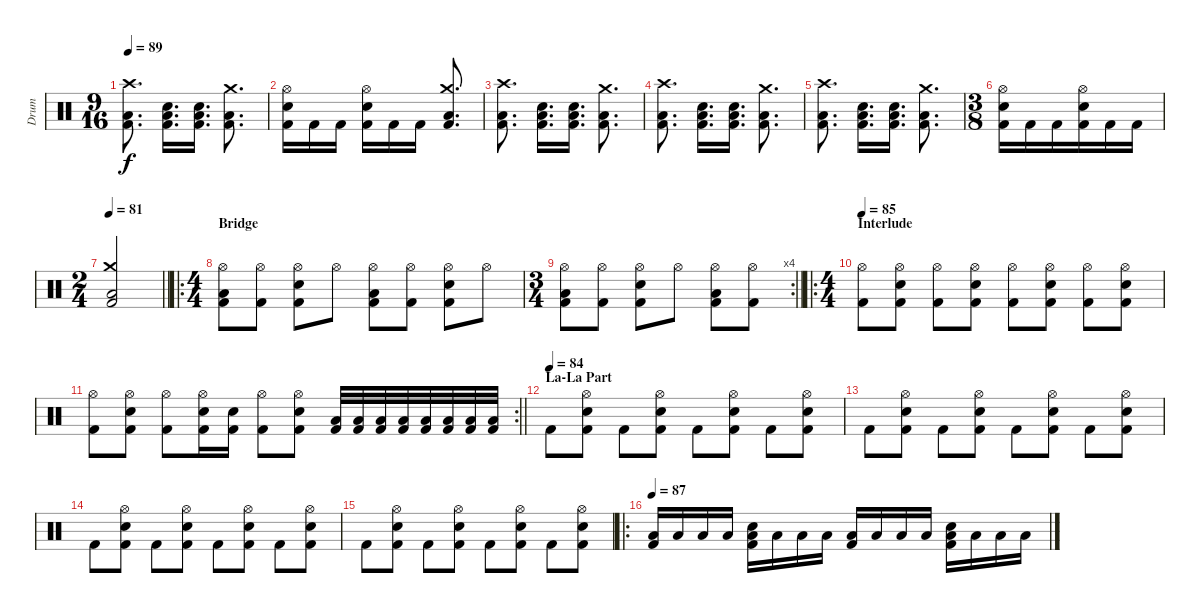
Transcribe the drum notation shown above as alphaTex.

\track ("Drum" "Drum") {instrument percussion}
\staff {score}
\articulation defaults
\ts (9 16)
\tempo 89
\clef neutral
\ks c
("Crash high (hit)" "Low Tom (hit)" "Kick (hit) 2").8{d dy f} ("Low Tom (hit)" "Electric Snare (hit)" "Kick (hit) 2").16{d} ("Low Tom (hit)" "Electric Snare (hit)" "Kick (hit) 2").16{d} ("Crash medium (hit)" "Low Tom (hit)" "Kick (hit) 2").8{d} |
("Hi-Hat (open)" "Electric Snare (hit)" "Kick (hit) 2").16 "Kick (hit) 2".16 "Kick (hit) 2".16 ("Hi-Hat (open)" "Electric Snare (hit)" "Kick (hit) 2").16 "Kick (hit) 2".16 "Kick (hit) 2".16 ("Crash medium (hit)" "Low Floor Tom (hit)" "Kick (hit) 2").8{d} |
("Crash high (hit)" "Low Tom (hit)" "Kick (hit) 2").8{d} ("Low Tom (hit)" "Electric Snare (hit)" "Kick (hit) 2").16{d} ("Low Tom (hit)" "Electric Snare (hit)" "Kick (hit) 2").16{d} ("Crash medium (hit)" "Low Tom (hit)" "Kick (hit) 2").8{d} |
("Crash high (hit)" "Low Tom (hit)" "Kick (hit) 2").8{d} ("Low Tom (hit)" "Electric Snare (hit)" "Kick (hit) 2").16{d} ("Low Tom (hit)" "Electric Snare (hit)" "Kick (hit) 2").16{d} ("Crash medium (hit)" "Low Tom (hit)" "Kick (hit) 2").8{d} |
("Crash high (hit)" "Low Tom (hit)" "Kick (hit) 2").8{d} ("Low Tom (hit)" "Electric Snare (hit)" "Kick (hit) 2").16{d} ("Low Tom (hit)" "Electric Snare (hit)" "Kick (hit) 2").16{d} ("Crash medium (hit)" "Low Tom (hit)" "Kick (hit) 2").8{d} |
\ts (3 8)
("Hi-Hat (open)" "Electric Snare (hit)" "Kick (hit) 2").16 "Kick (hit) 2".16 "Kick (hit) 2".16 ("Hi-Hat (open)" "Electric Snare (hit)" "Kick (hit) 2").16 "Kick (hit) 2".16 "Kick (hit) 2".16 |
\ts (2 4)
\tempo 81
\barLineRight lightlight
("Crash medium (hit)" "Low Floor Tom (hit)" "Kick (hit) 2").2 |
\ro
\ts (4 4)
\section ("" "Bridge")
("Hi-Hat (open)" "Low Floor Tom (hit)" "Kick (hit) 2").8 ("Hi-Hat (open)" "Kick (hit) 2").8 ("Hi-Hat (open)" "Electric Snare (hit)" "Kick (hit) 2").8 "Hi-Hat (open)".8 ("Hi-Hat (open)" "Low Floor Tom (hit)" "Kick (hit) 2").8 ("Hi-Hat (open)" "Kick (hit) 2").8 ("Hi-Hat (open)" "Electric Snare (hit)" "Kick (hit) 2").8 "Hi-Hat (open)".8 |
\rc 4
\ts (3 4)
\barLineRight lightlight
("Hi-Hat (open)" "Low Floor Tom (hit)" "Kick (hit) 2").8 ("Hi-Hat (open)" "Kick (hit) 2").8 ("Hi-Hat (open)" "Electric Snare (hit)" "Kick (hit) 2").8 "Hi-Hat (open)".8 ("Hi-Hat (open)" "Low Floor Tom (hit)" "Kick (hit) 2").8 ("Hi-Hat (open)" "Kick (hit) 2").8 |
\ro
\ts (4 4)
\section ("" "Interlude")
\tempo 85
("Hi-Hat (open)" "Kick (hit) 2").8 ("Hi-Hat (open)" "Electric Snare (hit)" "Kick (hit) 2").8 ("Hi-Hat (open)" "Kick (hit) 2").8 ("Hi-Hat (open)" "Electric Snare (hit)" "Kick (hit) 2").8 ("Hi-Hat (open)" "Kick (hit) 2").8 ("Hi-Hat (open)" "Electric Snare (hit)" "Kick (hit) 2").8 ("Hi-Hat (open)" "Kick (hit) 2").8 ("Hi-Hat (open)" "Electric Snare (hit)" "Kick (hit) 2").8 |
\rc 2
\barLineRight lightlight
("Hi-Hat (open)" "Kick (hit) 2").8 ("Hi-Hat (open)" "Electric Snare (hit)" "Kick (hit) 2").8 ("Hi-Hat (open)" "Kick (hit) 2").8 ("Hi-Hat (open)" "Electric Snare (hit)" "Kick (hit) 2").16 ("Electric Snare (hit)" "Kick (hit) 2").16 ("Hi-Hat (open)" "Kick (hit) 2").8 ("Hi-Hat (open)" "Electric Snare (hit)" "Kick (hit) 2").8 ("Low Floor Tom (hit)" "Kick (hit) 2").32 ("Low Floor Tom (hit)" "Kick (hit) 2").32 ("Low Floor Tom (hit)" "Kick (hit) 2").32 ("Low Floor Tom (hit)" "Kick (hit) 2").32 ("Low Floor Tom (hit)" "Kick (hit) 2").32 ("Low Floor Tom (hit)" "Kick (hit) 2").32 ("Low Floor Tom (hit)" "Kick (hit) 2").32 ("Low Floor Tom (hit)" "Kick (hit) 2").32 |
\section ("" "La-La Part")
\tempo 85
\tempo (84)
"Kick (hit) 2".8 ("Hi-Hat (open)" "Electric Snare (hit)" "Kick (hit) 2").8 "Kick (hit) 2".8 ("Hi-Hat (open)" "Electric Snare (hit)" "Kick (hit) 2").8 "Kick (hit) 2".8 ("Hi-Hat (open)" "Electric Snare (hit)" "Kick (hit) 2").8 "Kick (hit) 2".8 ("Hi-Hat (open)" "Electric Snare (hit)" "Kick (hit) 2").8 |
"Kick (hit) 2".8 ("Hi-Hat (open)" "Electric Snare (hit)" "Kick (hit) 2").8 "Kick (hit) 2".8 ("Hi-Hat (open)" "Electric Snare (hit)" "Kick (hit) 2").8 "Kick (hit) 2".8 ("Hi-Hat (open)" "Electric Snare (hit)" "Kick (hit) 2").8 "Kick (hit) 2".8 ("Hi-Hat (open)" "Electric Snare (hit)" "Kick (hit) 2").8 |
"Kick (hit) 2".8 ("Hi-Hat (open)" "Electric Snare (hit)" "Kick (hit) 2").8 "Kick (hit) 2".8 ("Hi-Hat (open)" "Electric Snare (hit)" "Kick (hit) 2").8 "Kick (hit) 2".8 ("Hi-Hat (open)" "Electric Snare (hit)" "Kick (hit) 2").8 "Kick (hit) 2".8 ("Hi-Hat (open)" "Electric Snare (hit)" "Kick (hit) 2").8 |
"Kick (hit) 2".8 ("Hi-Hat (open)" "Electric Snare (hit)" "Kick (hit) 2").8 "Kick (hit) 2".8 ("Hi-Hat (open)" "Electric Snare (hit)" "Kick (hit) 2").8 "Kick (hit) 2".8 ("Hi-Hat (open)" "Electric Snare (hit)" "Kick (hit) 2").8 "Kick (hit) 2".8 ("Hi-Hat (open)" "Electric Snare (hit)" "Kick (hit) 2").8 |
\ro
\tempo 87
("Low Tom (hit)" "Kick (hit) 2").16 "Low Tom (hit)".16 "Low Tom (hit)".16 "Low Tom (hit)".16 ("Low Tom (hit)" "Electric Snare (hit)" "Kick (hit) 2").16 "Low Tom (hit)".16 "Low Tom (hit)".16 "Low Tom (hit)".16 ("Low Tom (hit)" "Kick (hit) 2").16 "Low Tom (hit)".16 "Low Tom (hit)".16 "Low Tom (hit)".16 ("Low Tom (hit)" "Electric Snare (hit)" "Kick (hit) 2").16 "Low Tom (hit)".16 "Low Tom (hit)".16 "Low Tom (hit)".16
